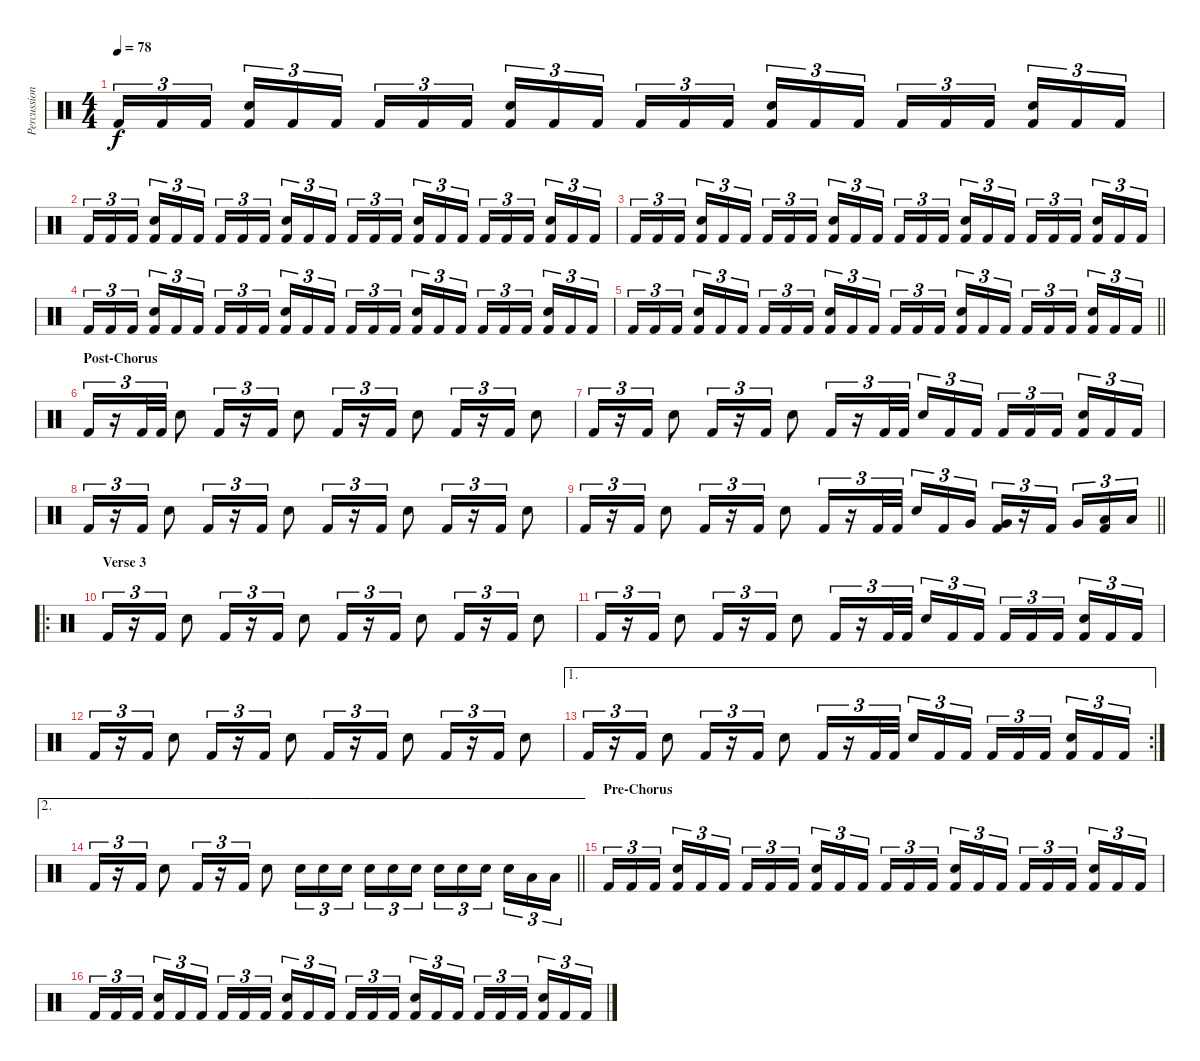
\track ("Percussion" "Percussion") {instrument percussion}
\staff {score}
\articulation defaults
\ts (4 4)
\tempo 78
\clef neutral
\ks c "Kick (hit) 2".16{tu (3 2) dy f} "Kick (hit) 2".16{tu (3 2)} "Kick (hit) 2".16{tu (3 2) beam splitsecondary}
("Kick (hit) 2" "Electric Snare (hit)").16{tu (3 2)} "Kick (hit) 2".16{tu (3 2)} "Kick (hit) 2".16{tu (3 2)} "Kick (hit) 2".16{tu (3 2)} "Kick (hit) 2".16{tu (3 2)} "Kick (hit) 2".16{tu (3 2) beam splitsecondary} ("Kick (hit) 2" "Electric Snare (hit)").16{tu (3 2)} "Kick (hit) 2".16{tu (3 2)} "Kick (hit) 2".16{tu (3 2)} "Kick (hit) 2".16{tu (3 2)} "Kick (hit) 2".16{tu (3 2)} "Kick (hit) 2".16{tu (3 2) beam splitsecondary} ("Kick (hit) 2" "Electric Snare (hit)").16{tu (3 2)} "Kick (hit) 2".16{tu (3 2)} "Kick (hit) 2".16{tu (3 2)} "Kick (hit) 2".16{tu (3 2)} "Kick (hit) 2".16{tu (3 2)} "Kick (hit) 2".16{tu (3 2) beam splitsecondary} ("Kick (hit) 2" "Electric Snare (hit)").16{tu (3 2)} "Kick (hit) 2".16{tu (3 2)} "Kick (hit) 2".16{tu (3 2)} |
"Kick (hit) 2".16{tu (3 2)} "Kick (hit) 2".16{tu (3 2)} "Kick (hit) 2".16{tu (3 2) beam splitsecondary} ("Kick (hit) 2" "Electric Snare (hit)").16{tu (3 2)} "Kick (hit) 2".16{tu (3 2)} "Kick (hit) 2".16{tu (3 2)} "Kick (hit) 2".16{tu (3 2)} "Kick (hit) 2".16{tu (3 2)} "Kick (hit) 2".16{tu (3 2) beam splitsecondary} ("Kick (hit) 2" "Electric Snare (hit)").16{tu (3 2)} "Kick (hit) 2".16{tu (3 2)} "Kick (hit) 2".16{tu (3 2)} "Kick (hit) 2".16{tu (3 2)} "Kick (hit) 2".16{tu (3 2)} "Kick (hit) 2".16{tu (3 2) beam splitsecondary} ("Kick (hit) 2" "Electric Snare (hit)").16{tu (3 2)} "Kick (hit) 2".16{tu (3 2)} "Kick (hit) 2".16{tu (3 2)} "Kick (hit) 2".16{tu (3 2)} "Kick (hit) 2".16{tu (3 2)} "Kick (hit) 2".16{tu (3 2) beam splitsecondary} ("Kick (hit) 2" "Electric Snare (hit)").16{tu (3 2)} "Kick (hit) 2".16{tu (3 2)} "Kick (hit) 2".16{tu (3 2)} |
"Kick (hit) 2".16{tu (3 2)} "Kick (hit) 2".16{tu (3 2)} "Kick (hit) 2".16{tu (3 2) beam splitsecondary} ("Kick (hit) 2" "Electric Snare (hit)").16{tu (3 2)} "Kick (hit) 2".16{tu (3 2)} "Kick (hit) 2".16{tu (3 2)} "Kick (hit) 2".16{tu (3 2)} "Kick (hit) 2".16{tu (3 2)} "Kick (hit) 2".16{tu (3 2) beam splitsecondary} ("Kick (hit) 2" "Electric Snare (hit)").16{tu (3 2)} "Kick (hit) 2".16{tu (3 2)} "Kick (hit) 2".16{tu (3 2)} "Kick (hit) 2".16{tu (3 2)} "Kick (hit) 2".16{tu (3 2)} "Kick (hit) 2".16{tu (3 2) beam splitsecondary} ("Kick (hit) 2" "Electric Snare (hit)").16{tu (3 2)} "Kick (hit) 2".16{tu (3 2)} "Kick (hit) 2".16{tu (3 2)} "Kick (hit) 2".16{tu (3 2)} "Kick (hit) 2".16{tu (3 2)} "Kick (hit) 2".16{tu (3 2) beam splitsecondary} ("Kick (hit) 2" "Electric Snare (hit)").16{tu (3 2)} "Kick (hit) 2".16{tu (3 2)} "Kick (hit) 2".16{tu (3 2)} |
"Kick (hit) 2".16{tu (3 2)} "Kick (hit) 2".16{tu (3 2)} "Kick (hit) 2".16{tu (3 2) beam splitsecondary} ("Kick (hit) 2" "Electric Snare (hit)").16{tu (3 2)} "Kick (hit) 2".16{tu (3 2)} "Kick (hit) 2".16{tu (3 2)} "Kick (hit) 2".16{tu (3 2)} "Kick (hit) 2".16{tu (3 2)} "Kick (hit) 2".16{tu (3 2) beam splitsecondary} ("Kick (hit) 2" "Electric Snare (hit)").16{tu (3 2)} "Kick (hit) 2".16{tu (3 2)} "Kick (hit) 2".16{tu (3 2)} "Kick (hit) 2".16{tu (3 2)} "Kick (hit) 2".16{tu (3 2)} "Kick (hit) 2".16{tu (3 2) beam splitsecondary} ("Kick (hit) 2" "Electric Snare (hit)").16{tu (3 2)} "Kick (hit) 2".16{tu (3 2)} "Kick (hit) 2".16{tu (3 2)} "Kick (hit) 2".16{tu (3 2)} "Kick (hit) 2".16{tu (3 2)} "Kick (hit) 2".16{tu (3 2) beam splitsecondary} ("Kick (hit) 2" "Electric Snare (hit)").16{tu (3 2)} "Kick (hit) 2".16{tu (3 2)} "Kick (hit) 2".16{tu (3 2)} |
\barLineRight lightlight "Kick (hit) 2".16{tu (3 2)} "Kick (hit) 2".16{tu (3 2)} "Kick (hit) 2".16{tu (3 2) beam splitsecondary}
("Kick (hit) 2" "Electric Snare (hit)").16{tu (3 2)} "Kick (hit) 2".16{tu (3 2)} "Kick (hit) 2".16{tu (3 2)} "Kick (hit) 2".16{tu (3 2)} "Kick (hit) 2".16{tu (3 2)} "Kick (hit) 2".16{tu (3 2) beam splitsecondary} ("Kick (hit) 2" "Electric Snare (hit)").16{tu (3 2)} "Kick (hit) 2".16{tu (3 2)} "Kick (hit) 2".16{tu (3 2)} "Kick (hit) 2".16{tu (3 2)} "Kick (hit) 2".16{tu (3 2)} "Kick (hit) 2".16{tu (3 2) beam splitsecondary} ("Kick (hit) 2" "Electric Snare (hit)").16{tu (3 2)} "Kick (hit) 2".16{tu (3 2)} "Kick (hit) 2".16{tu (3 2)} "Kick (hit) 2".16{tu (3 2)} "Kick (hit) 2".16{tu (3 2)} "Kick (hit) 2".16{tu (3 2) beam splitsecondary} ("Kick (hit) 2" "Electric Snare (hit)").16{tu (3 2)} "Kick (hit) 2".16{tu (3 2)} "Kick (hit) 2".16{tu (3 2)} |
\section ("" "Post-Chorus")
"Kick (hit) 2".16{tu (3 2)} r.16{tu (3 2)} "Kick (hit) 2".32{tu (3 2)} "Kick (hit) 2".32{tu (3 2)} "Electric Snare (hit)".8 "Kick (hit) 2".16{tu (3 2)} r.16{tu (3 2)} "Kick (hit) 2".16{tu (3 2)} "Electric Snare (hit)".8 "Kick (hit) 2".16{tu (3 2)} r.16{tu (3 2)} "Kick (hit) 2".16{tu (3 2)} "Electric Snare (hit)".8 "Kick (hit) 2".16{tu (3 2)} r.16{tu (3 2)} "Kick (hit) 2".16{tu (3 2)} "Electric Snare (hit)".8 |
"Kick (hit) 2".16{tu (3 2)} r.16{tu (3 2)} "Kick (hit) 2".16{tu (3 2)} "Electric Snare (hit)".8 "Kick (hit) 2".16{tu (3 2)} r.16{tu (3 2)} "Kick (hit) 2".16{tu (3 2)} "Electric Snare (hit)".8 "Kick (hit) 2".16{tu (3 2)} r.16{tu (3 2)} "Kick (hit) 2".32{tu (3 2)} "Kick (hit) 2".32{tu (3 2) beam splitsecondary} "Electric Snare (hit)".16{tu (3 2)} "Kick (hit) 2".16{tu (3 2)} "Kick (hit) 2".16{tu (3 2)} "Kick (hit) 2".16{tu (3 2)} "Kick (hit) 2".16{tu (3 2)} "Kick (hit) 2".16{tu (3 2) beam splitsecondary} ("Kick (hit) 2" "Electric Snare (hit)").16{tu (3 2)} "Kick (hit) 2".16{tu (3 2)} "Kick (hit) 2".16{tu (3 2)} |
"Kick (hit) 2".16{tu (3 2)} r.16{tu (3 2)} "Kick (hit) 2".16{tu (3 2)} "Electric Snare (hit)".8 "Kick (hit) 2".16{tu (3 2)} r.16{tu (3 2)} "Kick (hit) 2".16{tu (3 2)} "Electric Snare (hit)".8 "Kick (hit) 2".16{tu (3 2)} r.16{tu (3 2)} "Kick (hit) 2".16{tu (3 2)} "Electric Snare (hit)".8 "Kick (hit) 2".16{tu (3 2)} r.16{tu (3 2)} "Kick (hit) 2".16{tu (3 2)} "Electric Snare (hit)".8 |
\barLineRight lightlight "Kick (hit) 2".16{tu (3 2)}
r.16{tu (3 2)} "Kick (hit) 2".16{tu (3 2)} "Electric Snare (hit)".8 "Kick (hit) 2".16{tu (3 2)} r.16{tu (3 2)} "Kick (hit) 2".16{tu (3 2)} "Electric Snare (hit)".8 "Kick (hit) 2".16{tu (3 2)} r.16{tu (3 2)} "Kick (hit) 2".32{tu (3 2)} "Kick (hit) 2".32{tu (3 2) beam splitsecondary} "Electric Snare (hit)".16{tu (3 2)} "Kick (hit) 2".16{tu (3 2)} "Very Low Tom (hit)".16{tu (3 2)} ("Kick (hit) 2" "Very Low Tom (hit)").16{tu (3 2)} r.16{tu (3 2)} "Kick (hit) 2".16{tu (3 2) beam splitsecondary} "Very Low Tom (hit)".16{tu (3 2)} ("Kick (hit) 2" "Low Floor Tom (hit)").16{tu (3 2)} "Low Floor Tom (hit)".16{tu (3 2)} |
\ro
\section ("" "Verse 3")
"Kick (hit) 2".16{tu (3 2)} r.16{tu (3 2)} "Kick (hit) 2".16{tu (3 2)} "Electric Snare (hit)".8 "Kick (hit) 2".16{tu (3 2)} r.16{tu (3 2)} "Kick (hit) 2".16{tu (3 2)} "Electric Snare (hit)".8 "Kick (hit) 2".16{tu (3 2)} r.16{tu (3 2)} "Kick (hit) 2".16{tu (3 2)} "Electric Snare (hit)".8 "Kick (hit) 2".16{tu (3 2)} r.16{tu (3 2)} "Kick (hit) 2".16{tu (3 2)} "Electric Snare (hit)".8 |
"Kick (hit) 2".16{tu (3 2)} r.16{tu (3 2)} "Kick (hit) 2".16{tu (3 2)} "Electric Snare (hit)".8 "Kick (hit) 2".16{tu (3 2)} r.16{tu (3 2)} "Kick (hit) 2".16{tu (3 2)} "Electric Snare (hit)".8 "Kick (hit) 2".16{tu (3 2)} r.16{tu (3 2)} "Kick (hit) 2".32{tu (3 2)} "Kick (hit) 2".32{tu (3 2) beam splitsecondary} "Electric Snare (hit)".16{tu (3 2)} "Kick (hit) 2".16{tu (3 2)} "Kick (hit) 2".16{tu (3 2)} "Kick (hit) 2".16{tu (3 2)} "Kick (hit) 2".16{tu (3 2)} "Kick (hit) 2".16{tu (3 2) beam splitsecondary} ("Kick (hit) 2" "Electric Snare (hit)").16{tu (3 2)} "Kick (hit) 2".16{tu (3 2)} "Kick (hit) 2".16{tu (3 2)} |
"Kick (hit) 2".16{tu (3 2)} r.16{tu (3 2)} "Kick (hit) 2".16{tu (3 2)} "Electric Snare (hit)".8 "Kick (hit) 2".16{tu (3 2)} r.16{tu (3 2)} "Kick (hit) 2".16{tu (3 2)} "Electric Snare (hit)".8 "Kick (hit) 2".16{tu (3 2)} r.16{tu (3 2)} "Kick (hit) 2".16{tu (3 2)} "Electric Snare (hit)".8 "Kick (hit) 2".16{tu (3 2)} r.16{tu (3 2)} "Kick (hit) 2".16{tu (3 2)} "Electric Snare (hit)".8 |
\ae 1
\rc 2 "Kick (hit) 2".16{tu (3 2)}
r.16{tu (3 2)} "Kick (hit) 2".16{tu (3 2)} "Electric Snare (hit)".8 "Kick (hit) 2".16{tu (3 2)} r.16{tu (3 2)} "Kick (hit) 2".16{tu (3 2)} "Electric Snare (hit)".8 "Kick (hit) 2".16{tu (3 2)} r.16{tu (3 2)} "Kick (hit) 2".32{tu (3 2)} "Kick (hit) 2".32{tu (3 2) beam splitsecondary} "Electric Snare (hit)".16{tu (3 2)} "Kick (hit) 2".16{tu (3 2)} "Kick (hit) 2".16{tu (3 2)} "Kick (hit) 2".16{tu (3 2)} "Kick (hit) 2".16{tu (3 2)} "Kick (hit) 2".16{tu (3 2) beam splitsecondary} ("Kick (hit) 2" "Electric Snare (hit)").16{tu (3 2)} "Kick (hit) 2".16{tu (3 2)} "Kick (hit) 2".16{tu (3 2)} |
\ae 2
\barLineRight lightlight "Kick (hit) 2".16{tu (3 2)}
r.16{tu (3 2)} "Kick (hit) 2".16{tu (3 2)} "Electric Snare (hit)".8 "Kick (hit) 2".16{tu (3 2)} r.16{tu (3 2)} "Kick (hit) 2".16{tu (3 2)} "Electric Snare (hit)".8 "Electric Snare (hit)".16{tu (3 2)} "Electric Snare (hit)".16{tu (3 2)} "Electric Snare (hit)".16{tu (3 2) beam splitsecondary} "Electric Snare (hit)".16{tu (3 2)} "Electric Snare (hit)".16{tu (3 2)} "Electric Snare (hit)".16{tu (3 2)} "Electric Snare (hit)".16{tu (3 2)} "Electric Snare (hit)".16{tu (3 2)} "Electric Snare (hit)".16{tu (3 2) beam splitsecondary} "Electric Snare (hit)".16{tu (3 2)} "Low Floor Tom (hit)".16{tu (3 2)} "Low Floor Tom (hit)".16{tu (3 2)} |
\section ("" "Pre-Chorus")
"Kick (hit) 2".16{tu (3 2)} "Kick (hit) 2".16{tu (3 2)} "Kick (hit) 2".16{tu (3 2) beam splitsecondary} ("Kick (hit) 2" "Electric Snare (hit)").16{tu (3 2)} "Kick (hit) 2".16{tu (3 2)} "Kick (hit) 2".16{tu (3 2)} "Kick (hit) 2".16{tu (3 2)} "Kick (hit) 2".16{tu (3 2)} "Kick (hit) 2".16{tu (3 2) beam splitsecondary} ("Kick (hit) 2" "Electric Snare (hit)").16{tu (3 2)} "Kick (hit) 2".16{tu (3 2)} "Kick (hit) 2".16{tu (3 2)} "Kick (hit) 2".16{tu (3 2)} "Kick (hit) 2".16{tu (3 2)} "Kick (hit) 2".16{tu (3 2) beam splitsecondary} ("Kick (hit) 2" "Electric Snare (hit)").16{tu (3 2)} "Kick (hit) 2".16{tu (3 2)} "Kick (hit) 2".16{tu (3 2)} "Kick (hit) 2".16{tu (3 2)} "Kick (hit) 2".16{tu (3 2)} "Kick (hit) 2".16{tu (3 2) beam splitsecondary} ("Kick (hit) 2" "Electric Snare (hit)").16{tu (3 2)} "Kick (hit) 2".16{tu (3 2)} "Kick (hit) 2".16{tu (3 2)} |
"Kick (hit) 2".16{tu (3 2)} "Kick (hit) 2".16{tu (3 2)} "Kick (hit) 2".16{tu (3 2) beam splitsecondary} ("Kick (hit) 2" "Electric Snare (hit)").16{tu (3 2)} "Kick (hit) 2".16{tu (3 2)} "Kick (hit) 2".16{tu (3 2)} "Kick (hit) 2".16{tu (3 2)} "Kick (hit) 2".16{tu (3 2)} "Kick (hit) 2".16{tu (3 2) beam splitsecondary} ("Kick (hit) 2" "Electric Snare (hit)").16{tu (3 2)} "Kick (hit) 2".16{tu (3 2)} "Kick (hit) 2".16{tu (3 2)} "Kick (hit) 2".16{tu (3 2)} "Kick (hit) 2".16{tu (3 2)} "Kick (hit) 2".16{tu (3 2) beam splitsecondary} ("Kick (hit) 2" "Electric Snare (hit)").16{tu (3 2)} "Kick (hit) 2".16{tu (3 2)} "Kick (hit) 2".16{tu (3 2)} "Kick (hit) 2".16{tu (3 2)} "Kick (hit) 2".16{tu (3 2)} "Kick (hit) 2".16{tu (3 2) beam splitsecondary} ("Kick (hit) 2" "Electric Snare (hit)").16{tu (3 2)} "Kick (hit) 2".16{tu (3 2)} "Kick (hit) 2".16{tu (3 2)}
